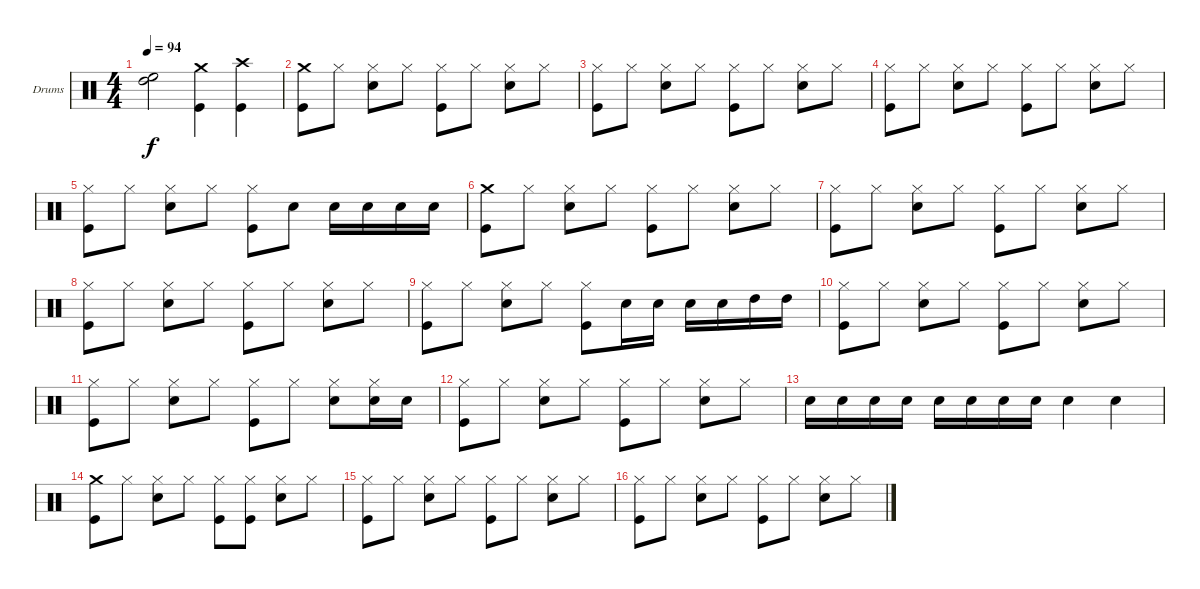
\bracketExtendMode groupsimilarinstruments
\firstSystemTrackNameOrientation horizontal
\otherSystemsTrackNameOrientation horizontal
\track ("Drumkit" "Drums") {instrument percussion}
\staff {score}
\articulation defaults
\ts (4 4)
\tempo 94
\clef neutral
\ks c
("High Tom (hit)" "High Floor Tom (hit)").2{dy f} ("Crash medium (hit)" "Kick (hit)").4 ("Crash high (hit)" "Kick (hit)").4 |
("Crash medium (hit)" "Kick (hit)").8 "Hi-Hat (closed)".8 ("Hi-Hat (closed)" "Snare (hit) 2").8 "Hi-Hat (closed)".8 ("Hi-Hat (closed)" "Kick (hit)").8 "Hi-Hat (closed)".8 ("Hi-Hat (closed)" "Snare (hit) 2").8 "Hi-Hat (closed)".8 |
("Hi-Hat (closed)" "Kick (hit)").8 "Hi-Hat (closed)".8 ("Hi-Hat (closed)" "Snare (hit) 2").8 "Hi-Hat (closed)".8 ("Hi-Hat (closed)" "Kick (hit)").8 "Hi-Hat (closed)".8 ("Hi-Hat (closed)" "Snare (hit) 2").8 "Hi-Hat (closed)".8 |
("Hi-Hat (closed)" "Kick (hit)").8 "Hi-Hat (closed)".8 ("Hi-Hat (closed)" "Snare (hit) 2").8 "Hi-Hat (closed)".8 ("Hi-Hat (closed)" "Kick (hit)").8 "Hi-Hat (closed)".8 ("Hi-Hat (closed)" "Snare (hit) 2").8 "Hi-Hat (closed)".8 |
("Hi-Hat (closed)" "Kick (hit)").8 "Hi-Hat (closed)".8 ("Hi-Hat (closed)" "Snare (hit) 2").8 "Hi-Hat (closed)".8 ("Hi-Hat (closed)" "Kick (hit)").8 "Snare (hit) 2".8 "Snare (hit) 2".16 "Snare (hit) 2".16 "Snare (hit) 2".16 "Snare (hit) 2".16 |
("Crash medium (hit)" "Kick (hit)").8 "Hi-Hat (closed)".8 ("Hi-Hat (closed)" "Snare (hit) 2").8 "Hi-Hat (closed)".8 ("Hi-Hat (closed)" "Kick (hit)").8 "Hi-Hat (closed)".8 ("Hi-Hat (closed)" "Snare (hit) 2").8 "Hi-Hat (closed)".8 |
("Hi-Hat (closed)" "Kick (hit)").8 "Hi-Hat (closed)".8 ("Hi-Hat (closed)" "Snare (hit) 2").8 "Hi-Hat (closed)".8 ("Hi-Hat (closed)" "Kick (hit)").8 "Hi-Hat (closed)".8 ("Hi-Hat (closed)" "Snare (hit) 2").8 "Hi-Hat (closed)".8 |
("Hi-Hat (closed)" "Kick (hit)").8 "Hi-Hat (closed)".8 ("Hi-Hat (closed)" "Snare (hit) 2").8 "Hi-Hat (closed)".8 ("Hi-Hat (closed)" "Kick (hit)").8 "Hi-Hat (closed)".8 ("Hi-Hat (closed)" "Snare (hit) 2").8 "Hi-Hat (closed)".8 |
("Hi-Hat (closed)" "Kick (hit)").8 "Hi-Hat (closed)".8 ("Hi-Hat (closed)" "Snare (hit) 2").8 "Hi-Hat (closed)".8 ("Hi-Hat (closed)" "Kick (hit)").8 "Snare (hit) 2".16 "Snare (hit) 2".16 "Snare (hit) 2".16 "Snare (hit) 2".16 "High Tom (hit)".16 "High Tom (hit)".16 |
("Hi-Hat (closed)" "Kick (hit)").8 "Hi-Hat (closed)".8 ("Hi-Hat (closed)" "Snare (hit) 2").8 "Hi-Hat (closed)".8 ("Hi-Hat (closed)" "Kick (hit)").8 "Hi-Hat (closed)".8 ("Hi-Hat (closed)" "Snare (hit) 2").8 "Hi-Hat (closed)".8 |
("Hi-Hat (closed)" "Kick (hit)").8 "Hi-Hat (closed)".8 ("Hi-Hat (closed)" "Snare (hit) 2").8 "Hi-Hat (closed)".8 ("Hi-Hat (closed)" "Kick (hit)").8 "Hi-Hat (closed)".8 ("Hi-Hat (closed)" "Snare (hit) 2").8 ("Hi-Hat (closed)" "Snare (hit) 2").16 "Snare (hit) 2".16 |
("Hi-Hat (closed)" "Kick (hit)").8 "Hi-Hat (closed)".8 ("Hi-Hat (closed)" "Snare (hit) 2").8 "Hi-Hat (closed)".8 ("Hi-Hat (closed)" "Kick (hit)").8 "Hi-Hat (closed)".8 ("Hi-Hat (closed)" "Snare (hit) 2").8 "Hi-Hat (closed)".8 |
"Snare (hit) 2".16 "Snare (hit) 2".16 "Snare (hit) 2".16 "Snare (hit) 2".16 "Snare (hit) 2".16 "Snare (hit) 2".16 "Snare (hit) 2".16 "Snare (hit) 2".16 "Snare (hit) 2".4 "Snare (hit) 2".4 |
("Crash medium (hit)" "Kick (hit)").8 "Hi-Hat (closed)".8 ("Hi-Hat (closed)" "Snare (hit) 2").8 "Hi-Hat (closed)".8 ("Hi-Hat (closed)" "Kick (hit)").8 ("Hi-Hat (closed)" "Kick (hit)").8 ("Hi-Hat (closed)" "Snare (hit) 2").8 "Hi-Hat (closed)".8 |
("Hi-Hat (closed)" "Kick (hit)").8 "Hi-Hat (closed)".8 ("Hi-Hat (closed)" "Snare (hit) 2").8 "Hi-Hat (closed)".8 ("Hi-Hat (closed)" "Kick (hit)").8 "Hi-Hat (closed)".8 ("Hi-Hat (closed)" "Snare (hit) 2").8 "Hi-Hat (closed)".8 |
("Hi-Hat (closed)" "Kick (hit)").8 "Hi-Hat (closed)".8 ("Hi-Hat (closed)" "Snare (hit) 2").8 "Hi-Hat (closed)".8 ("Hi-Hat (closed)" "Kick (hit)").8 "Hi-Hat (closed)".8 ("Hi-Hat (closed)" "Snare (hit) 2").8 "Hi-Hat (closed)".8
